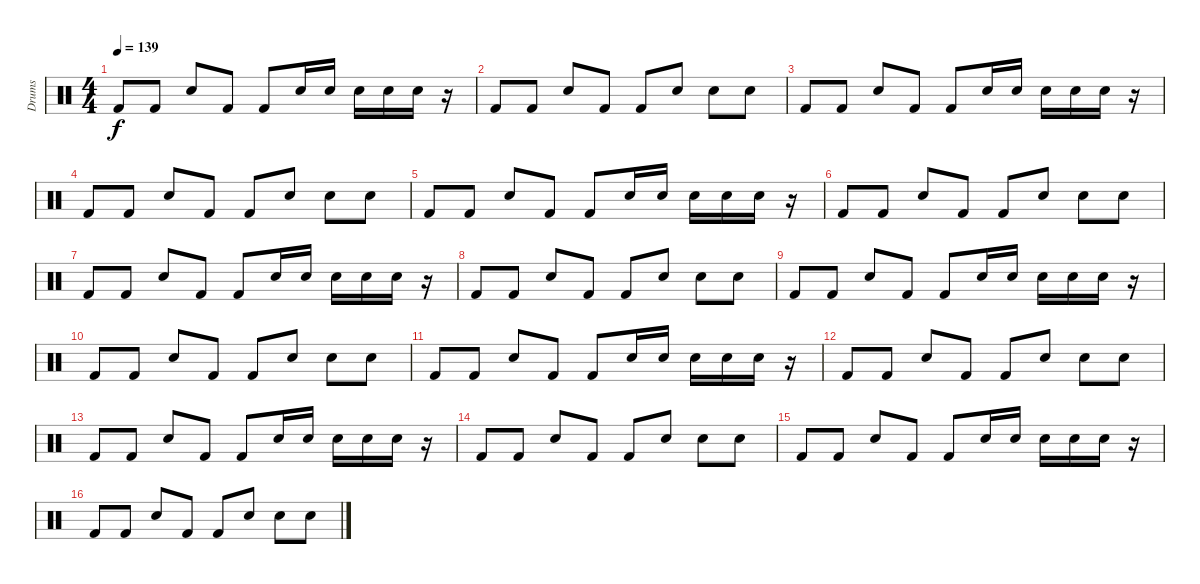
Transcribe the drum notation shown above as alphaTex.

\track ("Drums" "Drums") {instrument percussion}
\staff {score}
\articulation defaults
\ts (4 4)
\tempo 139
\clef neutral
\ks c "Kick (hit) 2".8{dy f} "Kick (hit) 2".8 "Snare (hit) 2".8 "Kick (hit) 2".8 "Kick (hit) 2".8 "Snare (hit) 2".16 "Snare (hit) 2".16 "Snare (hit) 2".16 "Snare (hit) 2".16 "Snare (hit) 2".16
r.16 |
"Kick (hit) 2".8 "Kick (hit) 2".8 "Snare (hit) 2".8 "Kick (hit) 2".8 "Kick (hit) 2".8 "Snare (hit) 2".8 "Snare (hit) 2".8 "Snare (hit) 2".8 |
"Kick (hit) 2".8 "Kick (hit) 2".8 "Snare (hit) 2".8 "Kick (hit) 2".8 "Kick (hit) 2".8 "Snare (hit) 2".16 "Snare (hit) 2".16 "Snare (hit) 2".16 "Snare (hit) 2".16 "Snare (hit) 2".16 r.16 |
"Kick (hit) 2".8 "Kick (hit) 2".8 "Snare (hit) 2".8 "Kick (hit) 2".8 "Kick (hit) 2".8 "Snare (hit) 2".8 "Snare (hit) 2".8 "Snare (hit) 2".8 |
"Kick (hit) 2".8 "Kick (hit) 2".8 "Snare (hit) 2".8 "Kick (hit) 2".8 "Kick (hit) 2".8 "Snare (hit) 2".16 "Snare (hit) 2".16 "Snare (hit) 2".16 "Snare (hit) 2".16 "Snare (hit) 2".16 r.16 |
"Kick (hit) 2".8 "Kick (hit) 2".8 "Snare (hit) 2".8 "Kick (hit) 2".8 "Kick (hit) 2".8 "Snare (hit) 2".8 "Snare (hit) 2".8 "Snare (hit) 2".8 |
"Kick (hit) 2".8 "Kick (hit) 2".8 "Snare (hit) 2".8 "Kick (hit) 2".8 "Kick (hit) 2".8 "Snare (hit) 2".16 "Snare (hit) 2".16 "Snare (hit) 2".16 "Snare (hit) 2".16 "Snare (hit) 2".16 r.16 |
"Kick (hit) 2".8 "Kick (hit) 2".8 "Snare (hit) 2".8 "Kick (hit) 2".8 "Kick (hit) 2".8 "Snare (hit) 2".8 "Snare (hit) 2".8 "Snare (hit) 2".8 |
"Kick (hit) 2".8 "Kick (hit) 2".8 "Snare (hit) 2".8 "Kick (hit) 2".8 "Kick (hit) 2".8 "Snare (hit) 2".16 "Snare (hit) 2".16 "Snare (hit) 2".16 "Snare (hit) 2".16 "Snare (hit) 2".16 r.16 |
"Kick (hit) 2".8 "Kick (hit) 2".8 "Snare (hit) 2".8 "Kick (hit) 2".8 "Kick (hit) 2".8 "Snare (hit) 2".8 "Snare (hit) 2".8 "Snare (hit) 2".8 |
"Kick (hit) 2".8 "Kick (hit) 2".8 "Snare (hit) 2".8 "Kick (hit) 2".8 "Kick (hit) 2".8 "Snare (hit) 2".16 "Snare (hit) 2".16 "Snare (hit) 2".16 "Snare (hit) 2".16 "Snare (hit) 2".16 r.16 |
"Kick (hit) 2".8 "Kick (hit) 2".8 "Snare (hit) 2".8 "Kick (hit) 2".8 "Kick (hit) 2".8 "Snare (hit) 2".8 "Snare (hit) 2".8 "Snare (hit) 2".8 |
"Kick (hit) 2".8 "Kick (hit) 2".8 "Snare (hit) 2".8 "Kick (hit) 2".8 "Kick (hit) 2".8 "Snare (hit) 2".16 "Snare (hit) 2".16 "Snare (hit) 2".16 "Snare (hit) 2".16 "Snare (hit) 2".16 r.16 |
"Kick (hit) 2".8 "Kick (hit) 2".8 "Snare (hit) 2".8 "Kick (hit) 2".8 "Kick (hit) 2".8 "Snare (hit) 2".8 "Snare (hit) 2".8 "Snare (hit) 2".8 |
"Kick (hit) 2".8 "Kick (hit) 2".8 "Snare (hit) 2".8 "Kick (hit) 2".8 "Kick (hit) 2".8 "Snare (hit) 2".16 "Snare (hit) 2".16 "Snare (hit) 2".16 "Snare (hit) 2".16 "Snare (hit) 2".16 r.16 |
"Kick (hit) 2".8 "Kick (hit) 2".8 "Snare (hit) 2".8 "Kick (hit) 2".8 "Kick (hit) 2".8 "Snare (hit) 2".8 "Snare (hit) 2".8 "Snare (hit) 2".8
